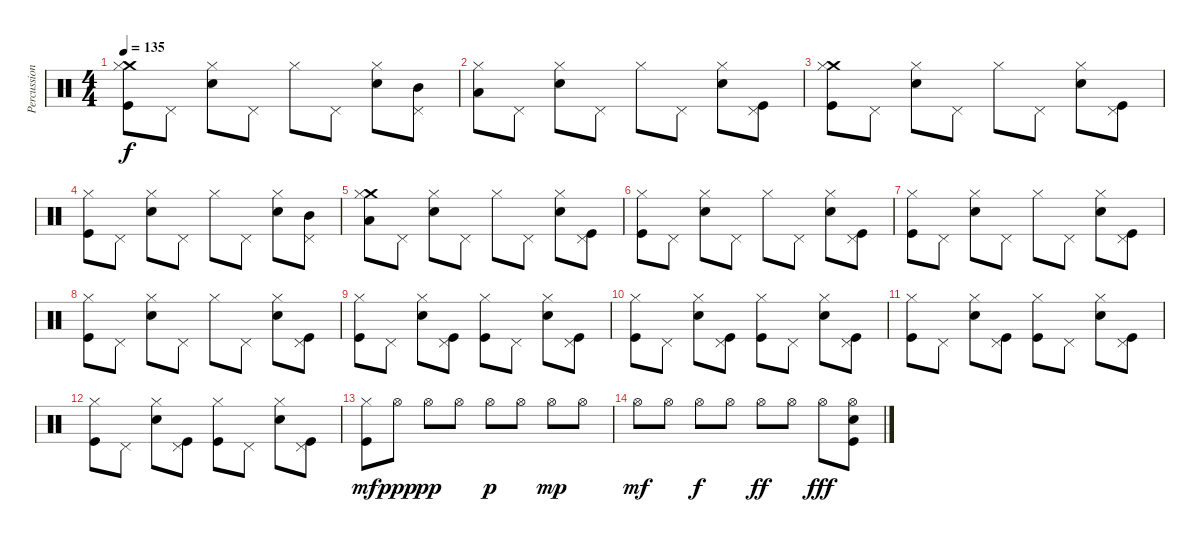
\track ("Percussion - Mark Gajadhar" "Percussion") {instrument percussion}
\staff {score}
\articulation defaults
\ts (4 4)
\tempo 135
\clef neutral
\ks c
("Crash medium (hit)" "Hi-Hat (closed)" "Kick (hit)").8{dy f} "Pedal Hi-Hat (hit)".8 ("Snare (hit) 2" "Hi-Hat (closed)").8 "Pedal Hi-Hat (hit)".8 "Hi-Hat (closed)".8 "Pedal Hi-Hat (hit)".8 ("Snare (hit) 2" "Hi-Hat (closed)").8 ("Pedal Hi-Hat (hit)" "Mid Tom (hit)").8 |
("Hi-Hat (closed)" "Low Tom (hit)").8 "Pedal Hi-Hat (hit)".8 ("Snare (hit) 2" "Hi-Hat (closed)").8 "Pedal Hi-Hat (hit)".8 "Hi-Hat (closed)".8 "Pedal Hi-Hat (hit)".8 ("Snare (hit) 2" "Hi-Hat (closed)").8 ("Pedal Hi-Hat (hit)" "Kick (hit)").8 |
("Crash medium (hit)" "Hi-Hat (closed)" "Kick (hit)").8 "Pedal Hi-Hat (hit)".8 ("Snare (hit) 2" "Hi-Hat (closed)").8 "Pedal Hi-Hat (hit)".8 "Hi-Hat (closed)".8 "Pedal Hi-Hat (hit)".8 ("Snare (hit) 2" "Hi-Hat (closed)").8 ("Pedal Hi-Hat (hit)" "Kick (hit)").8 |
("Hi-Hat (closed)" "Kick (hit)").8 "Pedal Hi-Hat (hit)".8 ("Snare (hit) 2" "Hi-Hat (closed)").8 "Pedal Hi-Hat (hit)".8 "Hi-Hat (closed)".8 "Pedal Hi-Hat (hit)".8 ("Snare (hit) 2" "Hi-Hat (closed)").8 ("Pedal Hi-Hat (hit)" "Mid Tom (hit)").8 |
("Crash medium (hit)" "Hi-Hat (closed)" "Low Tom (hit)").8 "Pedal Hi-Hat (hit)".8 ("Snare (hit) 2" "Hi-Hat (closed)").8 "Pedal Hi-Hat (hit)".8 "Hi-Hat (closed)".8 "Pedal Hi-Hat (hit)".8 ("Snare (hit) 2" "Hi-Hat (closed)").8 ("Pedal Hi-Hat (hit)" "Kick (hit)").8 |
("Hi-Hat (closed)" "Kick (hit)").8 "Pedal Hi-Hat (hit)".8 ("Snare (hit) 2" "Hi-Hat (closed)").8 "Pedal Hi-Hat (hit)".8 "Hi-Hat (closed)".8 "Pedal Hi-Hat (hit)".8 ("Snare (hit) 2" "Hi-Hat (closed)").8 ("Pedal Hi-Hat (hit)" "Kick (hit)").8 |
("Hi-Hat (closed)" "Kick (hit)").8 "Pedal Hi-Hat (hit)".8 ("Snare (hit) 2" "Hi-Hat (closed)").8 "Pedal Hi-Hat (hit)".8 "Hi-Hat (closed)".8 "Pedal Hi-Hat (hit)".8 ("Snare (hit) 2" "Hi-Hat (closed)").8 ("Pedal Hi-Hat (hit)" "Kick (hit)").8 |
("Hi-Hat (closed)" "Kick (hit)").8 "Pedal Hi-Hat (hit)".8 ("Snare (hit) 2" "Hi-Hat (closed)").8 "Pedal Hi-Hat (hit)".8 "Hi-Hat (closed)".8 "Pedal Hi-Hat (hit)".8 ("Snare (hit) 2" "Hi-Hat (closed)").8 ("Pedal Hi-Hat (hit)" "Kick (hit)").8 |
("Hi-Hat (closed)" "Kick (hit)").8 "Pedal Hi-Hat (hit)".8 ("Snare (hit) 2" "Hi-Hat (closed)").8 ("Pedal Hi-Hat (hit)" "Kick (hit)").8 ("Hi-Hat (closed)" "Kick (hit)").8 "Pedal Hi-Hat (hit)".8 ("Snare (hit) 2" "Hi-Hat (closed)").8 ("Pedal Hi-Hat (hit)" "Kick (hit)").8 |
("Hi-Hat (closed)" "Kick (hit)").8 "Pedal Hi-Hat (hit)".8 ("Snare (hit) 2" "Hi-Hat (closed)").8 ("Pedal Hi-Hat (hit)" "Kick (hit)").8 ("Hi-Hat (closed)" "Kick (hit)").8 "Pedal Hi-Hat (hit)".8 ("Snare (hit) 2" "Hi-Hat (closed)").8 ("Pedal Hi-Hat (hit)" "Kick (hit)").8 |
("Hi-Hat (closed)" "Kick (hit)").8 "Pedal Hi-Hat (hit)".8 ("Snare (hit) 2" "Hi-Hat (closed)").8 ("Pedal Hi-Hat (hit)" "Kick (hit)").8 ("Hi-Hat (closed)" "Kick (hit)").8 "Pedal Hi-Hat (hit)".8 ("Snare (hit) 2" "Hi-Hat (closed)").8 ("Pedal Hi-Hat (hit)" "Kick (hit)").8 |
("Hi-Hat (closed)" "Kick (hit)").8 "Pedal Hi-Hat (hit)".8 ("Snare (hit) 2" "Hi-Hat (closed)").8 ("Pedal Hi-Hat (hit)" "Kick (hit)").8 ("Hi-Hat (closed)" "Kick (hit)").8 "Pedal Hi-Hat (hit)".8 ("Snare (hit) 2" "Hi-Hat (closed)").8 ("Pedal Hi-Hat (hit)" "Kick (hit)").8 |
("Hi-Hat (closed)" "Kick (hit)").8{dy mf} "Hi-Hat (open)".8{dy ppp} "Hi-Hat (open)".8{dy pp} "Hi-Hat (open)".8 "Hi-Hat (open)".8{dy p} "Hi-Hat (open)".8 "Hi-Hat (open)".8{dy mp} "Hi-Hat (open)".8 |
"Hi-Hat (open)".8{dy mf} "Hi-Hat (open)".8 "Hi-Hat (open)".8{dy f} "Hi-Hat (open)".8 "Hi-Hat (open)".8{dy ff} "Hi-Hat (open)".8 "Hi-Hat (open)".8{dy fff} ("Snare (hit) 2" "Hi-Hat (open)" "Kick (hit)").8
